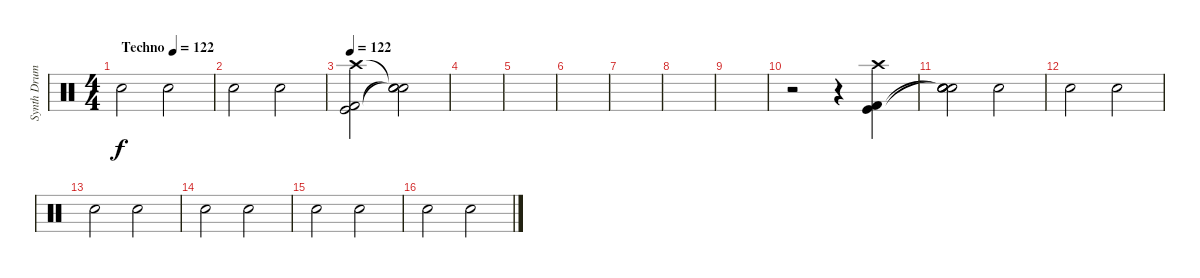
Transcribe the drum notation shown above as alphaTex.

\track ("Synth Drums" "Synth Drum") {instrument percussion}
\staff {score}
\articulation defaults
\ts (4 4)
\tempo (122 "Techno")
\tempo 132
\tempo (122 "Techno")
\clef neutral
\ks c "Hand Clap (hit)".2{dy f} "Hand Clap (hit)".2
|
"Hand Clap (hit)".2 "Hand Clap (hit)".2 |
\tempo 122
("Crash high (hit)" "Kick (hit) 2" "Kick (hit)").2 ("Snare (hit)"{t} "Snare (hit)"{t} "Snare (hit)"{t}).2 |
|
|
|
|
|
|
r.2 r.4 ("Crash high (hit)" "Kick (hit) 2" "Kick (hit)").4 |
("Hand Clap (hit)" "Snare (hit)"{t} "Snare (hit)"{t} "Hand Clap (hit)").2 "Hand Clap (hit)".2 |
"Hand Clap (hit)".2 "Hand Clap (hit)".2 |
"Hand Clap (hit)".2 "Hand Clap (hit)".2 |
"Hand Clap (hit)".2 "Hand Clap (hit)".2 |
"Hand Clap (hit)".2 "Hand Clap (hit)".2 |
"Hand Clap (hit)".2 "Hand Clap (hit)".2
